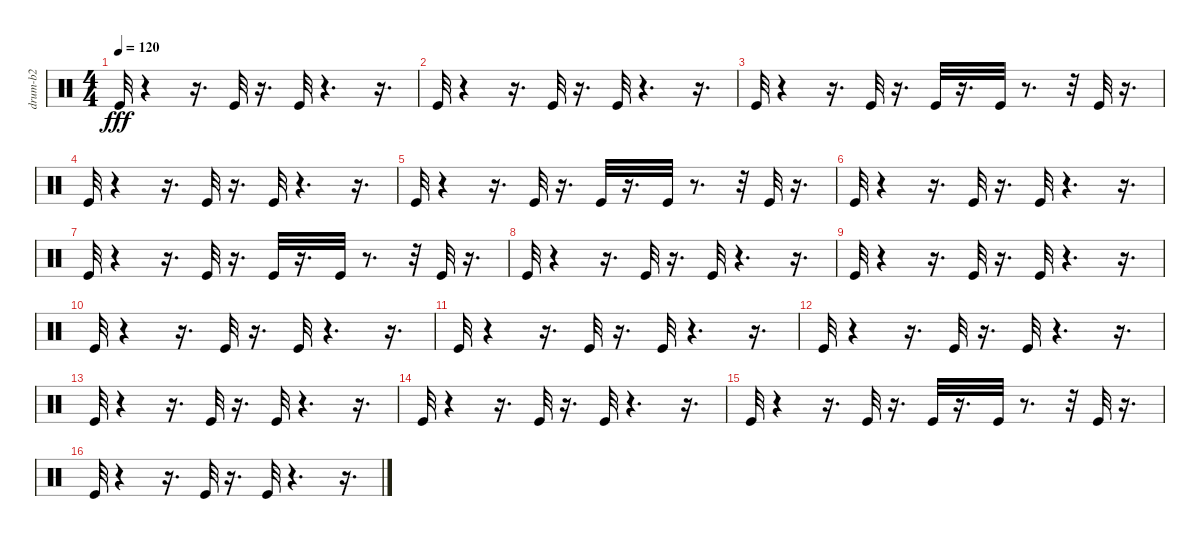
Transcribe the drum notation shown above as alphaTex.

\track ("drum-b2" "drum-b2") {instrument percussion}
\staff {score}
\articulation defaults
\ts (4 4)
\tempo 120
\clef neutral
\ks c "Kick (hit)".32{dy fff}
r.4 r.16{d} "Kick (hit)".32 r.16{d} "Kick (hit)".32 r.4{d} r.16{d} |
"Kick (hit)".32 r.4 r.16{d} "Kick (hit)".32 r.16{d} "Kick (hit)".32 r.4{d} r.16{d} |
"Kick (hit)".32 r.4 r.16{d} "Kick (hit)".32 r.16{d} "Kick (hit)".32 r.16{d} "Kick (hit)".32 r.8{d} r.32 "Kick (hit)".32 r.16{d} |
"Kick (hit)".32 r.4 r.16{d} "Kick (hit)".32 r.16{d} "Kick (hit)".32 r.4{d} r.16{d} |
"Kick (hit)".32 r.4 r.16{d} "Kick (hit)".32 r.16{d} "Kick (hit)".32 r.16{d} "Kick (hit)".32 r.8{d} r.32 "Kick (hit)".32 r.16{d} |
"Kick (hit)".32 r.4 r.16{d} "Kick (hit)".32 r.16{d} "Kick (hit)".32 r.4{d} r.16{d} |
"Kick (hit)".32 r.4 r.16{d} "Kick (hit)".32 r.16{d} "Kick (hit)".32 r.16{d} "Kick (hit)".32 r.8{d} r.32 "Kick (hit)".32 r.16{d} |
"Kick (hit)".32 r.4 r.16{d} "Kick (hit)".32 r.16{d} "Kick (hit)".32 r.4{d} r.16{d} |
"Kick (hit)".32 r.4 r.16{d} "Kick (hit)".32 r.16{d} "Kick (hit)".32 r.4{d} r.16{d} |
"Kick (hit)".32 r.4 r.16{d} "Kick (hit)".32 r.16{d} "Kick (hit)".32 r.4{d} r.16{d} |
"Kick (hit)".32 r.4 r.16{d} "Kick (hit)".32 r.16{d} "Kick (hit)".32 r.4{d} r.16{d} |
"Kick (hit)".32 r.4 r.16{d} "Kick (hit)".32 r.16{d} "Kick (hit)".32 r.4{d} r.16{d} |
"Kick (hit)".32 r.4 r.16{d} "Kick (hit)".32 r.16{d} "Kick (hit)".32 r.4{d} r.16{d} |
"Kick (hit)".32 r.4 r.16{d} "Kick (hit)".32 r.16{d} "Kick (hit)".32 r.4{d} r.16{d} |
"Kick (hit)".32 r.4 r.16{d} "Kick (hit)".32 r.16{d} "Kick (hit)".32 r.16{d} "Kick (hit)".32 r.8{d} r.32 "Kick (hit)".32 r.16{d} |
"Kick (hit)".32 r.4 r.16{d} "Kick (hit)".32 r.16{d} "Kick (hit)".32 r.4{d} r.16{d}
